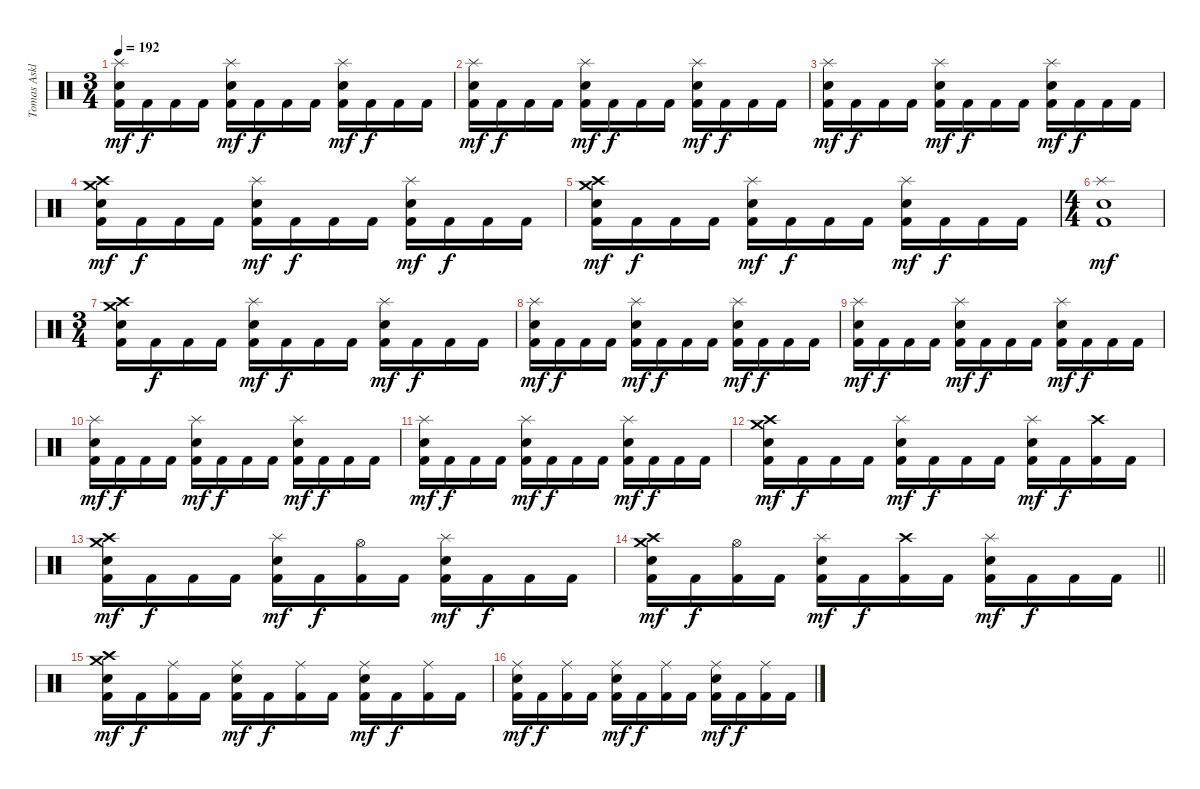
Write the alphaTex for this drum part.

\track ("Tomas Asklund" "Tomas Askl") {instrument percussion}
\staff {score}
\articulation defaults
\ts (3 4)
\tempo 192
\clef neutral
\ks c
("Splash (hit)" "Snare (hit) 2" "Kick (hit) 2").16{dy mf} "Kick (hit) 2".16{dy f} "Kick (hit) 2".16 "Kick (hit) 2".16 ("Splash (hit)" "Snare (hit) 2" "Kick (hit) 2").16{dy mf} "Kick (hit) 2".16{dy f} "Kick (hit) 2".16 "Kick (hit) 2".16 ("Splash (hit)" "Snare (hit) 2" "Kick (hit) 2").16{dy mf} "Kick (hit) 2".16{dy f} "Kick (hit) 2".16 "Kick (hit) 2".16 |
("Splash (hit)" "Snare (hit) 2" "Kick (hit) 2").16{dy mf} "Kick (hit) 2".16{dy f} "Kick (hit) 2".16 "Kick (hit) 2".16 ("Splash (hit)" "Snare (hit) 2" "Kick (hit) 2").16{dy mf} "Kick (hit) 2".16{dy f} "Kick (hit) 2".16 "Kick (hit) 2".16 ("Splash (hit)" "Snare (hit) 2" "Kick (hit) 2").16{dy mf} "Kick (hit) 2".16{dy f} "Kick (hit) 2".16 "Kick (hit) 2".16 |
("Splash (hit)" "Snare (hit) 2" "Kick (hit) 2").16{dy mf} "Kick (hit) 2".16{dy f} "Kick (hit) 2".16 "Kick (hit) 2".16 ("Splash (hit)" "Snare (hit) 2" "Kick (hit) 2").16{dy mf} "Kick (hit) 2".16{dy f} "Kick (hit) 2".16 "Kick (hit) 2".16 ("Splash (hit)" "Snare (hit) 2" "Kick (hit) 2").16{dy mf} "Kick (hit) 2".16{dy f} "Kick (hit) 2".16 "Kick (hit) 2".16 |
("Crash medium (hit)" "Crash high (hit)" "Snare (hit) 2" "Kick (hit) 2").16{dy mf} "Kick (hit) 2".16{dy f} "Kick (hit) 2".16 "Kick (hit) 2".16 ("Splash (hit)" "Snare (hit) 2" "Kick (hit) 2").16{dy mf} "Kick (hit) 2".16{dy f} "Kick (hit) 2".16 "Kick (hit) 2".16 ("Splash (hit)" "Snare (hit) 2" "Kick (hit) 2").16{dy mf} "Kick (hit) 2".16{dy f} "Kick (hit) 2".16 "Kick (hit) 2".16 |
("Crash medium (hit)" "Crash high (hit)" "Snare (hit) 2" "Kick (hit) 2").16{dy mf} "Kick (hit) 2".16{dy f} "Kick (hit) 2".16 "Kick (hit) 2".16 ("Splash (hit)" "Snare (hit) 2" "Kick (hit) 2").16{dy mf} "Kick (hit) 2".16{dy f} "Kick (hit) 2".16 "Kick (hit) 2".16 ("Splash (hit)" "Snare (hit) 2" "Kick (hit) 2").16{dy mf} "Kick (hit) 2".16{dy f} "Kick (hit) 2".16 "Kick (hit) 2".16 |
\ts (4 4)
("Splash (hit)" "Snare (hit) 2" "Kick (hit) 2").1{dy mf} |
\ts (3 4)
("Crash medium (hit)" "Crash high (hit)" "Snare (hit) 2" "Kick (hit) 2").16 "Kick (hit) 2".16{dy f} "Kick (hit) 2".16 "Kick (hit) 2".16 ("Splash (hit)" "Snare (hit) 2" "Kick (hit) 2").16{dy mf} "Kick (hit) 2".16{dy f} "Kick (hit) 2".16 "Kick (hit) 2".16 ("Splash (hit)" "Snare (hit) 2" "Kick (hit) 2").16{dy mf} "Kick (hit) 2".16{dy f} "Kick (hit) 2".16 "Kick (hit) 2".16 |
("Splash (hit)" "Snare (hit) 2" "Kick (hit) 2").16{dy mf} "Kick (hit) 2".16{dy f} "Kick (hit) 2".16 "Kick (hit) 2".16 ("Splash (hit)" "Snare (hit) 2" "Kick (hit) 2").16{dy mf} "Kick (hit) 2".16{dy f} "Kick (hit) 2".16 "Kick (hit) 2".16 ("Splash (hit)" "Snare (hit) 2" "Kick (hit) 2").16{dy mf} "Kick (hit) 2".16{dy f} "Kick (hit) 2".16 "Kick (hit) 2".16 |
("Splash (hit)" "Snare (hit) 2" "Kick (hit) 2").16{dy mf} "Kick (hit) 2".16{dy f} "Kick (hit) 2".16 "Kick (hit) 2".16 ("Splash (hit)" "Snare (hit) 2" "Kick (hit) 2").16{dy mf} "Kick (hit) 2".16{dy f} "Kick (hit) 2".16 "Kick (hit) 2".16 ("Splash (hit)" "Snare (hit) 2" "Kick (hit) 2").16{dy mf} "Kick (hit) 2".16{dy f} "Kick (hit) 2".16 "Kick (hit) 2".16 |
("Splash (hit)" "Snare (hit) 2" "Kick (hit) 2").16{dy mf} "Kick (hit) 2".16{dy f} "Kick (hit) 2".16 "Kick (hit) 2".16 ("Splash (hit)" "Snare (hit) 2" "Kick (hit) 2").16{dy mf} "Kick (hit) 2".16{dy f} "Kick (hit) 2".16 "Kick (hit) 2".16 ("Splash (hit)" "Snare (hit) 2" "Kick (hit) 2").16{dy mf} "Kick (hit) 2".16{dy f} "Kick (hit) 2".16 "Kick (hit) 2".16 |
("Splash (hit)" "Snare (hit) 2" "Kick (hit) 2").16{dy mf} "Kick (hit) 2".16{dy f} "Kick (hit) 2".16 "Kick (hit) 2".16 ("Splash (hit)" "Snare (hit) 2" "Kick (hit) 2").16{dy mf} "Kick (hit) 2".16{dy f} "Kick (hit) 2".16 "Kick (hit) 2".16 ("Splash (hit)" "Snare (hit) 2" "Kick (hit) 2").16{dy mf} "Kick (hit) 2".16{dy f} "Kick (hit) 2".16 "Kick (hit) 2".16 |
("Crash medium (hit)" "Crash high (hit)" "Snare (hit) 2" "Kick (hit) 2").16{dy mf} "Kick (hit) 2".16{dy f} "Kick (hit) 2".16 "Kick (hit) 2".16 ("Splash (hit)" "Snare (hit) 2" "Kick (hit) 2").16{dy mf} "Kick (hit) 2".16{dy f} "Kick (hit) 2".16 "Kick (hit) 2".16 ("Splash (hit)" "Snare (hit) 2" "Kick (hit) 2").16{dy mf} "Kick (hit) 2".16{dy f} ("Crash high (hit)" "Kick (hit) 2").16 "Kick (hit) 2".16 |
("Crash medium (hit)" "Crash high (hit)" "Snare (hit) 2" "Kick (hit) 2").16{dy mf} "Kick (hit) 2".16{dy f} "Kick (hit) 2".16 "Kick (hit) 2".16 ("Splash (hit)" "Snare (hit) 2" "Kick (hit) 2").16{dy mf} "Kick (hit) 2".16{dy f} ("Hi-Hat (open)" "Kick (hit) 2").16 "Kick (hit) 2".16 ("Splash (hit)" "Snare (hit) 2" "Kick (hit) 2").16{dy mf} "Kick (hit) 2".16{dy f} "Kick (hit) 2".16 "Kick (hit) 2".16 |
\barLineRight lightlight
("Crash medium (hit)" "Crash high (hit)" "Snare (hit) 2" "Kick (hit) 2").16{dy mf} "Kick (hit) 2".16{dy f} ("Hi-Hat (open)" "Kick (hit) 2").16 "Kick (hit) 2".16 ("Splash (hit)" "Snare (hit) 2" "Kick (hit) 2").16{dy mf} "Kick (hit) 2".16{dy f} ("Crash high (hit)" "Kick (hit) 2").16 "Kick (hit) 2".16 ("Splash (hit)" "Snare (hit) 2" "Kick (hit) 2").16{dy mf} "Kick (hit) 2".16{dy f} "Kick (hit) 2".16 "Kick (hit) 2".16 |
("Crash medium (hit)" "Crash high (hit)" "Snare (hit) 2" "Kick (hit) 2").16{dy mf} "Kick (hit) 2".16{dy f} ("Ride (middle)" "Kick (hit) 2").16 "Kick (hit) 2".16 ("Ride (middle)" "Snare (hit) 2" "Kick (hit) 2").16{dy mf} "Kick (hit) 2".16{dy f} ("Ride (middle)" "Kick (hit) 2").16 "Kick (hit) 2".16 ("Ride (middle)" "Snare (hit) 2" "Kick (hit) 2").16{dy mf} "Kick (hit) 2".16{dy f} ("Ride (middle)" "Kick (hit) 2").16 "Kick (hit) 2".16 |
("Ride (middle)" "Snare (hit) 2" "Kick (hit) 2").16{dy mf} "Kick (hit) 2".16{dy f} ("Ride (middle)" "Kick (hit) 2").16 "Kick (hit) 2".16 ("Ride (middle)" "Snare (hit) 2" "Kick (hit) 2").16{dy mf} "Kick (hit) 2".16{dy f} ("Ride (middle)" "Kick (hit) 2").16 "Kick (hit) 2".16 ("Ride (middle)" "Snare (hit) 2" "Kick (hit) 2").16{dy mf} "Kick (hit) 2".16{dy f} ("Ride (middle)" "Kick (hit) 2").16 "Kick (hit) 2".16
